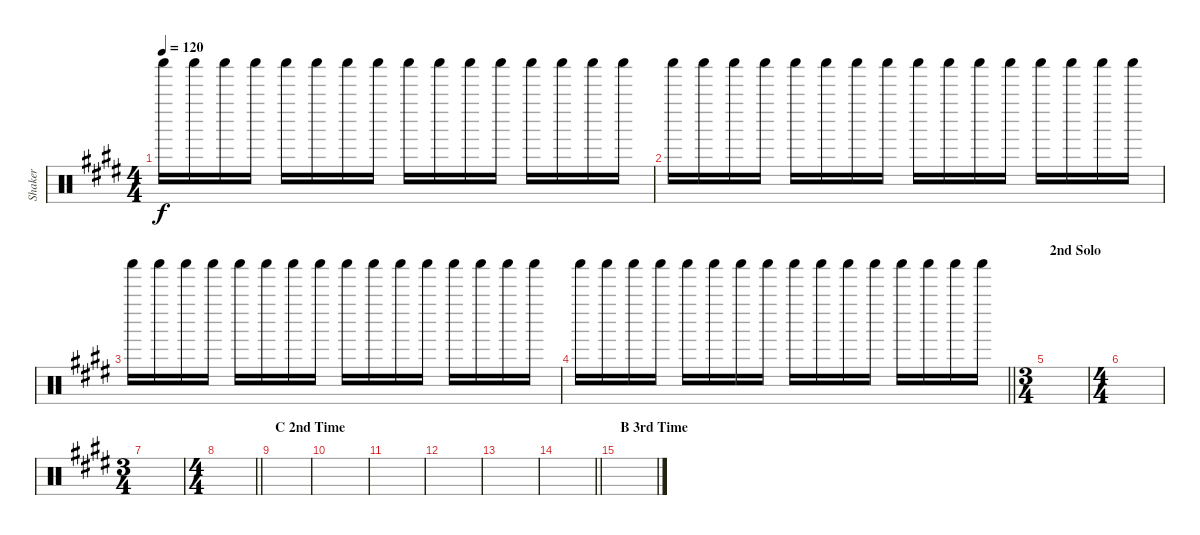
\track ("Shaker" "Shaker") {instrument percussion}
\staff {score}
\articulation defaults
\ts (4 4)
\tempo 120
\clef neutral
\ks e "Shaker (hit)".16{dy f} "Shaker (hit)".16 "Shaker (hit)".16 "Shaker (hit)".16 "Shaker (hit)".16 "Shaker (hit)".16 "Shaker (hit)".16 "Shaker (hit)".16 "Shaker (hit)".16 "Shaker (hit)".16 "Shaker (hit)".16 "Shaker (hit)".16 "Shaker (hit)".16 "Shaker (hit)".16 "Shaker (hit)".16 "Shaker (hit)".16
|
"Shaker (hit)".16 "Shaker (hit)".16 "Shaker (hit)".16 "Shaker (hit)".16 "Shaker (hit)".16 "Shaker (hit)".16 "Shaker (hit)".16 "Shaker (hit)".16 "Shaker (hit)".16 "Shaker (hit)".16 "Shaker (hit)".16 "Shaker (hit)".16 "Shaker (hit)".16 "Shaker (hit)".16 "Shaker (hit)".16 "Shaker (hit)".16 |
"Shaker (hit)".16 "Shaker (hit)".16 "Shaker (hit)".16 "Shaker (hit)".16 "Shaker (hit)".16 "Shaker (hit)".16 "Shaker (hit)".16 "Shaker (hit)".16 "Shaker (hit)".16 "Shaker (hit)".16 "Shaker (hit)".16 "Shaker (hit)".16 "Shaker (hit)".16 "Shaker (hit)".16 "Shaker (hit)".16 "Shaker (hit)".16 |
\barLineRight lightlight "Shaker (hit)".16 "Shaker (hit)".16 "Shaker (hit)".16 "Shaker (hit)".16 "Shaker (hit)".16 "Shaker (hit)".16 "Shaker (hit)".16 "Shaker (hit)".16 "Shaker (hit)".16 "Shaker (hit)".16 "Shaker (hit)".16 "Shaker (hit)".16 "Shaker (hit)".16 "Shaker (hit)".16 "Shaker (hit)".16 "Shaker (hit)".16
|
\ts (3 4)
\section ("" "2nd Solo")
|
\ts (4 4)
|
\ts (3 4)
|
\ts (4 4)
\barLineRight lightlight
|
\section ("" "C 2nd Time")
|
|
|
|
|
\barLineRight lightlight
|
\section ("" "B 3rd Time")
